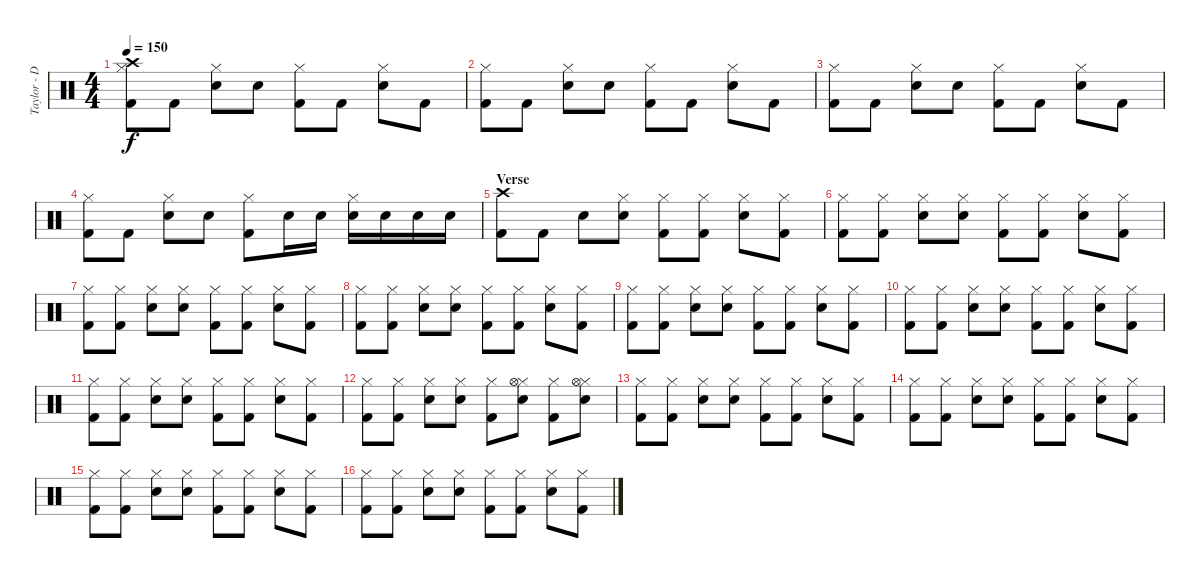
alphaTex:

\track ("Taylor - Drums" "Taylor - D") {instrument percussion}
\staff {score}
\articulation defaults
\ts (4 4)
\tempo 150
\clef neutral
\ks c
("Kick (hit) 2" "Hi-Hat (closed)" "Crash high (hit)").8{dy f} "Kick (hit) 2".8 ("Snare (hit) 2" "Hi-Hat (closed)").8 "Snare (hit) 2".8 ("Kick (hit) 2" "Hi-Hat (closed)").8 "Kick (hit) 2".8 ("Snare (hit) 2" "Hi-Hat (closed)").8 "Kick (hit) 2".8 |
("Kick (hit) 2" "Hi-Hat (closed)").8 "Kick (hit) 2".8 ("Snare (hit) 2" "Hi-Hat (closed)").8 "Snare (hit) 2".8 ("Kick (hit) 2" "Hi-Hat (closed)").8 "Kick (hit) 2".8 ("Snare (hit) 2" "Hi-Hat (closed)").8 "Kick (hit) 2".8 |
("Kick (hit) 2" "Hi-Hat (closed)").8 "Kick (hit) 2".8 ("Snare (hit) 2" "Hi-Hat (closed)").8 "Snare (hit) 2".8 ("Kick (hit) 2" "Hi-Hat (closed)").8 "Kick (hit) 2".8 ("Snare (hit) 2" "Hi-Hat (closed)").8 "Kick (hit) 2".8 |
("Kick (hit) 2" "Hi-Hat (closed)").8 "Kick (hit) 2".8 ("Snare (hit) 2" "Hi-Hat (closed)").8 "Snare (hit) 2".8 ("Kick (hit) 2" "Hi-Hat (closed)").8 "Snare (hit) 2".16 "Snare (hit) 2".16 ("Snare (hit) 2" "Hi-Hat (closed)").16 "Snare (hit) 2".16 "Snare (hit) 2".16 "Snare (hit) 2".16 |
\section ("" "Verse")
("Kick (hit) 2" "Crash high (hit)").8 "Kick (hit) 2".8 "Snare (hit) 2".8 ("Snare (hit) 2" "Hi-Hat (closed)").8 ("Kick (hit) 2" "Hi-Hat (closed)").8 ("Kick (hit) 2" "Hi-Hat (closed)").8 ("Snare (hit) 2" "Hi-Hat (closed)").8 ("Kick (hit) 2" "Hi-Hat (closed)").8 |
("Kick (hit) 2" "Hi-Hat (closed)").8 ("Kick (hit) 2" "Hi-Hat (closed)").8 ("Snare (hit) 2" "Hi-Hat (closed)").8 ("Snare (hit) 2" "Hi-Hat (closed)").8 ("Kick (hit) 2" "Hi-Hat (closed)").8 ("Kick (hit) 2" "Hi-Hat (closed)").8 ("Snare (hit) 2" "Hi-Hat (closed)").8 ("Kick (hit) 2" "Hi-Hat (closed)").8 |
("Kick (hit) 2" "Hi-Hat (closed)").8 ("Kick (hit) 2" "Hi-Hat (closed)").8 ("Snare (hit) 2" "Hi-Hat (closed)").8 ("Snare (hit) 2" "Hi-Hat (closed)").8 ("Kick (hit) 2" "Hi-Hat (closed)").8 ("Kick (hit) 2" "Hi-Hat (closed)").8 ("Snare (hit) 2" "Hi-Hat (closed)").8 ("Kick (hit) 2" "Hi-Hat (closed)").8 |
("Kick (hit) 2" "Hi-Hat (closed)").8 ("Kick (hit) 2" "Hi-Hat (closed)").8 ("Snare (hit) 2" "Hi-Hat (closed)").8 ("Snare (hit) 2" "Hi-Hat (closed)").8 ("Kick (hit) 2" "Hi-Hat (closed)").8 ("Kick (hit) 2" "Hi-Hat (closed)").8 ("Snare (hit) 2" "Hi-Hat (closed)").8 ("Kick (hit) 2" "Hi-Hat (closed)").8 |
("Kick (hit) 2" "Hi-Hat (closed)").8 ("Kick (hit) 2" "Hi-Hat (closed)").8 ("Snare (hit) 2" "Hi-Hat (closed)").8 ("Snare (hit) 2" "Hi-Hat (closed)").8 ("Kick (hit) 2" "Hi-Hat (closed)").8 ("Kick (hit) 2" "Hi-Hat (closed)").8 ("Snare (hit) 2" "Hi-Hat (closed)").8 ("Kick (hit) 2" "Hi-Hat (closed)").8 |
("Kick (hit) 2" "Hi-Hat (closed)").8 ("Kick (hit) 2" "Hi-Hat (closed)").8 ("Snare (hit) 2" "Hi-Hat (closed)").8 ("Snare (hit) 2" "Hi-Hat (closed)").8 ("Kick (hit) 2" "Hi-Hat (closed)").8 ("Kick (hit) 2" "Hi-Hat (closed)").8 ("Snare (hit) 2" "Hi-Hat (closed)").8 ("Kick (hit) 2" "Hi-Hat (closed)").8 |
("Kick (hit) 2" "Hi-Hat (closed)").8 ("Kick (hit) 2" "Hi-Hat (closed)").8 ("Snare (hit) 2" "Hi-Hat (closed)").8 ("Snare (hit) 2" "Hi-Hat (closed)").8 ("Kick (hit) 2" "Hi-Hat (closed)").8 ("Kick (hit) 2" "Hi-Hat (closed)").8 ("Snare (hit) 2" "Hi-Hat (closed)").8 ("Kick (hit) 2" "Hi-Hat (closed)").8 |
("Kick (hit) 2" "Hi-Hat (closed)").8 ("Kick (hit) 2" "Hi-Hat (closed)").8 ("Snare (hit) 2" "Hi-Hat (closed)").8 ("Snare (hit) 2" "Hi-Hat (closed)").8 ("Kick (hit) 2" "Hi-Hat (closed)").8 ("Snare (hit) 2" "Hi-Hat (closed)" "Hi-Hat (open)").8 ("Kick (hit) 2" "Hi-Hat (closed)").8 ("Snare (hit) 2" "Hi-Hat (closed)" "Hi-Hat (open)").8 |
("Kick (hit) 2" "Hi-Hat (closed)").8 ("Kick (hit) 2" "Hi-Hat (closed)").8 ("Snare (hit) 2" "Hi-Hat (closed)").8 ("Snare (hit) 2" "Hi-Hat (closed)").8 ("Kick (hit) 2" "Hi-Hat (closed)").8 ("Kick (hit) 2" "Hi-Hat (closed)").8 ("Snare (hit) 2" "Hi-Hat (closed)").8 ("Kick (hit) 2" "Hi-Hat (closed)").8 |
("Kick (hit) 2" "Hi-Hat (closed)").8 ("Kick (hit) 2" "Hi-Hat (closed)").8 ("Snare (hit) 2" "Hi-Hat (closed)").8 ("Snare (hit) 2" "Hi-Hat (closed)").8 ("Kick (hit) 2" "Hi-Hat (closed)").8 ("Kick (hit) 2" "Hi-Hat (closed)").8 ("Snare (hit) 2" "Hi-Hat (closed)").8 ("Kick (hit) 2" "Hi-Hat (closed)").8 |
("Kick (hit) 2" "Hi-Hat (closed)").8 ("Kick (hit) 2" "Hi-Hat (closed)").8 ("Snare (hit) 2" "Hi-Hat (closed)").8 ("Snare (hit) 2" "Hi-Hat (closed)").8 ("Kick (hit) 2" "Hi-Hat (closed)").8 ("Kick (hit) 2" "Hi-Hat (closed)").8 ("Snare (hit) 2" "Hi-Hat (closed)").8 ("Kick (hit) 2" "Hi-Hat (closed)").8 |
("Kick (hit) 2" "Hi-Hat (closed)").8 ("Kick (hit) 2" "Hi-Hat (closed)").8 ("Snare (hit) 2" "Hi-Hat (closed)").8 ("Snare (hit) 2" "Hi-Hat (closed)").8 ("Kick (hit) 2" "Hi-Hat (closed)").8 ("Kick (hit) 2" "Hi-Hat (closed)").8 ("Snare (hit) 2" "Hi-Hat (closed)").8 ("Kick (hit) 2" "Hi-Hat (closed)").8
